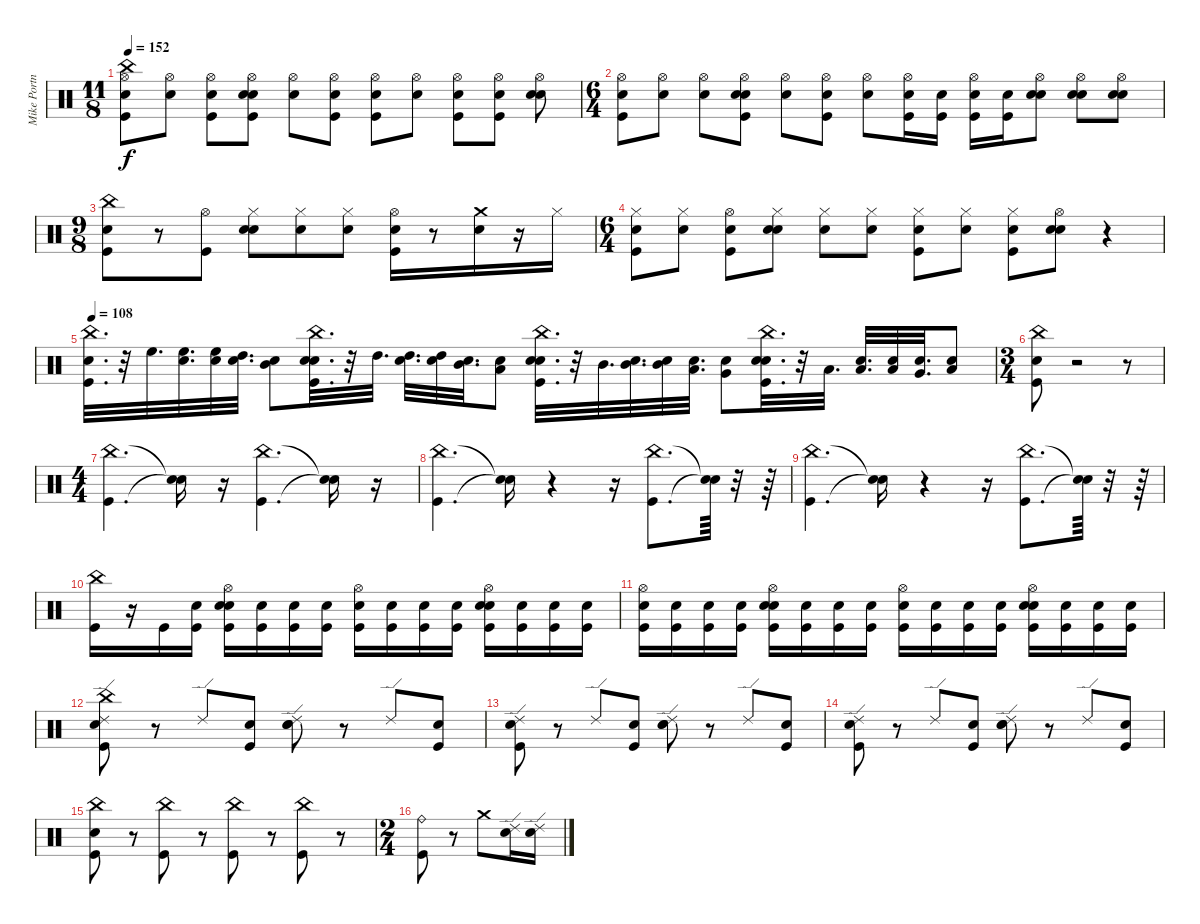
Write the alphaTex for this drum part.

\track ("Mike Portnoy" "Mike Portn") {instrument percussion}
\staff {score}
\articulation defaults
\ts (11 8)
\tempo 152
\clef neutral
\ks c
("Snare (hit)" "Kick (hit)" "Hi-Hat (open)" "China (hit)").8{dy f} ("Snare (hit)" "Hi-Hat (open)").8 ("Snare (hit)" "Kick (hit)" "Hi-Hat (open)").8 ("Snare (hit)" "Kick (hit)" "Snare (hit) 2" "Hi-Hat (open)").8 ("Snare (hit)" "Hi-Hat (open)").8 ("Snare (hit)" "Kick (hit)" "Hi-Hat (open)").8 ("Snare (hit)" "Kick (hit)" "Hi-Hat (open)").8 ("Snare (hit)" "Hi-Hat (open)").8 ("Snare (hit)" "Kick (hit)" "Hi-Hat (open)").8 ("Snare (hit)" "Kick (hit)" "Hi-Hat (open)").8 ("Snare (hit)" "Snare (hit) 2" "Hi-Hat (open)").8 |
\ts (6 4)
("Snare (hit)" "Kick (hit)" "Hi-Hat (open)").8 ("Snare (hit)" "Hi-Hat (open)").8 ("Snare (hit)" "Hi-Hat (open)").8 ("Snare (hit)" "Kick (hit)" "Snare (hit) 2" "Hi-Hat (open)").8 ("Snare (hit)" "Hi-Hat (open)").8 ("Snare (hit)" "Kick (hit)" "Hi-Hat (open)").8 ("Snare (hit)" "Hi-Hat (open)").8 ("Snare (hit)" "Kick (hit)" "Hi-Hat (open)").16 ("Snare (hit)" "Kick (hit)").16 ("Snare (hit)" "Kick (hit)" "Hi-Hat (open)").16 ("Snare (hit)" "Kick (hit)").16 ("Snare (hit)" "Snare (hit) 2" "Hi-Hat (open)").8 ("Snare (hit)" "Snare (hit) 2" "Hi-Hat (open)").8 ("Snare (hit)" "Snare (hit) 2" "Hi-Hat (open)").8 |
\ts (9 8)
("Snare (hit)" "Kick (hit)" "China (hit)").8 r.8 ("Kick (hit)" "Hi-Hat (open)").8 ("Snare (hit)" "Snare (hit) 2" "Hi-Hat (closed)").8 ("Snare (hit)" "Hi-Hat (closed)").8 ("Snare (hit)" "Hi-Hat (closed)").8 ("Snare (hit)" "Kick (hit)" "Hi-Hat (open)").16 r.8 ("Snare (hit) 2" "Crash medium (hit)").16 r.16 "Hi-Hat (closed)".16 |
\ts (6 4)
("Snare (hit)" "Kick (hit)" "Hi-Hat (closed)").8 ("Snare (hit)" "Hi-Hat (closed)").8 ("Snare (hit)" "Kick (hit)" "Hi-Hat (open)").8 ("Snare (hit)" "Snare (hit) 2" "Hi-Hat (closed)").8 ("Snare (hit)" "Hi-Hat (closed)").8 ("Snare (hit)" "Hi-Hat (closed)").8 ("Snare (hit)" "Kick (hit)" "Hi-Hat (closed)").8 ("Snare (hit)" "Hi-Hat (closed)").8 ("Snare (hit)" "Kick (hit)" "Hi-Hat (closed)").8 ("Snare (hit)" "Snare (hit) 2" "Hi-Hat (open)").8 r.4 |
\tempo 108
("Kick (hit)" "Snare (hit) 2" "China (hit)").32{d} r.32 "High Floor Tom (hit)".32{d} ("Snare (hit)" "High Floor Tom (hit)").32{d} ("Snare (hit)" "High Floor Tom (hit)").32 ("Snare (hit)" "High Tom (hit)").32{d} ("Snare (hit)" "Mid Tom (hit)").8 ("Snare (hit)" "Kick (hit)" "Snare (hit) 2" "China (hit)").32{d} r.32 "High Tom (hit)".32{d} ("Snare (hit)" "High Tom (hit)").32{d} ("Snare (hit)" "High Tom (hit)").32 ("Snare (hit)" "Mid Tom (hit)").32{d} ("Snare (hit)" "Low Tom (hit)").8 ("Snare (hit)" "Kick (hit)" "Snare (hit) 2" "China (hit)").32{d} r.32 "Mid Tom (hit)".32{d} ("Snare (hit)" "Mid Tom (hit)").32{d} ("Snare (hit)" "Mid Tom (hit)").32 ("Snare (hit)" "Low Tom (hit)").32{d} ("Snare (hit)" "Very Low Tom (hit)").8 ("Snare (hit)" "Kick (hit)" "Snare (hit) 2" "China (hit)").32{d} r.32 "Low Tom (hit)".32{d} ("Snare (hit)" "Low Tom (hit)").32{d} ("Snare (hit)" "Low Tom (hit)").32 ("Snare (hit)" "Very Low Tom (hit)").32{d} ("Snare (hit)" "Low Floor Tom (hit)").8 |
\ts (3 4)
("Snare (hit)" "Kick (hit)" "China (hit)").8 r.2 r.8 |
\ts (4 4)
("Kick (hit)" "China (hit)").4{d} ("Snare (hit)"{t} "Snare (hit)"{t}).16 r.16 ("Kick (hit)" "China (hit)").4{d} ("Snare (hit)"{t} "Snare (hit)"{t}).16 r.16 |
("Kick (hit)" "China (hit)").4{d} ("Snare (hit)"{t} "Snare (hit)"{t}).16 r.4 r.16 ("Kick (hit)" "China (hit)").8{d} ("Snare (hit)"{t} "Snare (hit)"{t}).64 r.32 r.64 |
("Kick (hit)" "China (hit)").4{d} ("Snare (hit)"{t} "Snare (hit)"{t}).16 r.4 r.16 ("Kick (hit)" "China (hit)").8{d} ("Snare (hit)"{t} "Snare (hit)"{t}).64 r.32 r.64 |
("Kick (hit)" "China (hit)").16 r.16 "Kick (hit)".16 ("Snare (hit)" "Kick (hit)").16 ("Snare (hit)" "Kick (hit)" "Snare (hit) 2" "Hi-Hat (open)").16 ("Snare (hit)" "Kick (hit)").16 ("Snare (hit)" "Kick (hit)").16 ("Snare (hit)" "Kick (hit)").16 ("Snare (hit)" "Kick (hit)" "Hi-Hat (open)").16 ("Snare (hit)" "Kick (hit)").16 ("Snare (hit)" "Kick (hit)").16 ("Snare (hit)" "Kick (hit)").16 ("Snare (hit)" "Kick (hit)" "Snare (hit) 2" "Hi-Hat (open)").16 ("Snare (hit)" "Kick (hit)").16 ("Snare (hit)" "Kick (hit)").16 ("Snare (hit)" "Kick (hit)").16 |
("Snare (hit)" "Kick (hit)" "Hi-Hat (open)").16 ("Snare (hit)" "Kick (hit)").16 ("Snare (hit)" "Kick (hit)").16 ("Snare (hit)" "Kick (hit)").16 ("Snare (hit)" "Kick (hit)" "Snare (hit) 2" "Hi-Hat (open)").16 ("Snare (hit)" "Kick (hit)").16 ("Snare (hit)" "Kick (hit)").16 ("Snare (hit)" "Kick (hit)").16 ("Snare (hit)" "Kick (hit)" "Hi-Hat (open)").16 ("Snare (hit)" "Kick (hit)").16 ("Snare (hit)" "Kick (hit)").16 ("Snare (hit)" "Kick (hit)").16 ("Snare (hit)" "Kick (hit)" "Snare (hit) 2" "Hi-Hat (open)").16 ("Snare (hit)" "Kick (hit)").16 ("Snare (hit)" "Kick (hit)").16 ("Snare (hit)" "Kick (hit)").16 |
("Snare (hit)" "Kick (hit)" "China (hit)" "Ride (edge) 2").8 r.8 "Ride (edge) 2".8 ("Snare (hit)" "Kick (hit)").8 ("Snare (hit)" "Snare (hit) 2" "Ride (edge) 2").8 r.8 "Ride (edge) 2".8 ("Snare (hit)" "Kick (hit)").8 |
("Snare (hit)" "Kick (hit)" "Ride (edge) 2").8 r.8 "Ride (edge) 2".8 ("Snare (hit)" "Kick (hit)").8 ("Snare (hit)" "Snare (hit) 2" "Ride (edge) 2").8 r.8 "Ride (edge) 2".8 ("Snare (hit)" "Kick (hit)").8 |
("Snare (hit)" "Kick (hit)" "Ride (edge) 2").8 r.8 "Ride (edge) 2".8 ("Snare (hit)" "Kick (hit)").8 ("Snare (hit)" "Snare (hit) 2" "Ride (edge) 2").8 r.8 "Ride (edge) 2".8 ("Snare (hit)" "Kick (hit)").8 |
("Snare (hit)" "Kick (hit)" "China (hit)").8 r.8 ("Kick (hit)" "China (hit)").8 r.8 ("Kick (hit)" "China (hit)").8 r.8 ("Kick (hit)" "China (hit)").8 r.8 |
\ts (2 4)
("Kick (hit)" "Ride (bell)").8 r.8 "Crash medium (hit)".8 ("Snare (hit)" "Ride (edge) 2").16 ("Snare (hit)" "Ride (edge) 2").16
